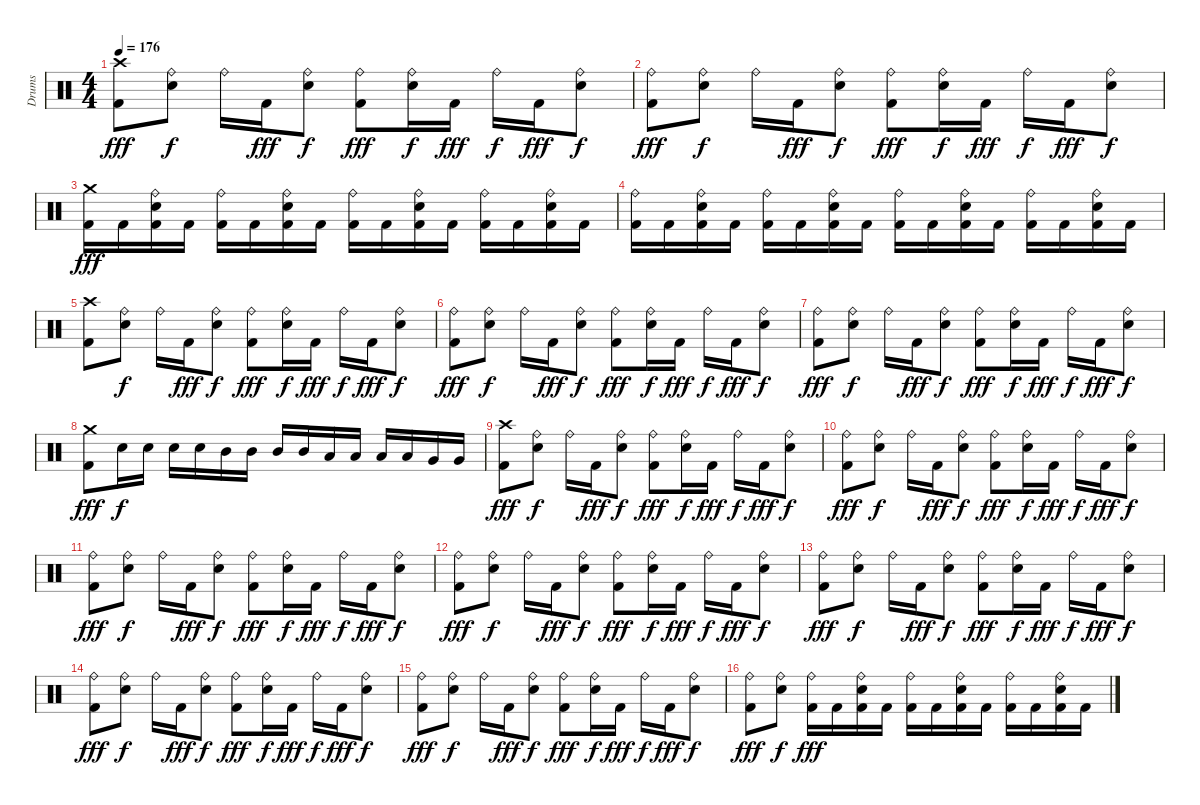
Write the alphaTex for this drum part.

\track ("Drums" "Drums") {instrument percussion}
\staff {score}
\articulation defaults
\ts (4 4)
\tempo 176
\clef neutral
\ks c
("Crash high (hit)" "Kick (hit) 2").8{dy fff} ("Ride (bell)" "Snare (hit) 2").8{dy f} "Ride (bell)".16 "Kick (hit) 2".16{dy fff} ("Ride (bell)" "Snare (hit) 2").8{dy f} ("Ride (bell)" "Kick (hit) 2").8{dy fff} ("Ride (bell)" "Snare (hit) 2").16{dy f} "Kick (hit) 2".16{dy fff} "Ride (bell)".16{dy f} "Kick (hit) 2".16{dy fff} ("Ride (bell)" "Snare (hit) 2").8{dy f} |
("Ride (bell)" "Kick (hit) 2").8{dy fff} ("Ride (bell)" "Snare (hit) 2").8{dy f} "Ride (bell)".16 "Kick (hit) 2".16{dy fff} ("Ride (bell)" "Snare (hit) 2").8{dy f} ("Ride (bell)" "Kick (hit) 2").8{dy fff} ("Ride (bell)" "Snare (hit) 2").16{dy f} "Kick (hit) 2".16{dy fff} "Ride (bell)".16{dy f} "Kick (hit) 2".16{dy fff} ("Ride (bell)" "Snare (hit) 2").8{dy f} |
("Crash medium (hit)" "Kick (hit) 2").16{dy fff} "Kick (hit) 2".16 ("Ride (bell)" "Snare (hit) 2" "Kick (hit) 2").16 "Kick (hit) 2".16 ("Ride (bell)" "Kick (hit) 2").16 "Kick (hit) 2".16 ("Ride (bell)" "Snare (hit) 2" "Kick (hit) 2").16 "Kick (hit) 2".16 ("Ride (bell)" "Kick (hit) 2").16 "Kick (hit) 2".16 ("Ride (bell)" "Snare (hit) 2" "Kick (hit) 2").16 "Kick (hit) 2".16 ("Ride (bell)" "Kick (hit) 2").16 "Kick (hit) 2".16 ("Ride (bell)" "Snare (hit) 2" "Kick (hit) 2").16 "Kick (hit) 2".16 |
("Ride (bell)" "Kick (hit) 2").16 "Kick (hit) 2".16 ("Ride (bell)" "Snare (hit) 2" "Kick (hit) 2").16 "Kick (hit) 2".16 ("Ride (bell)" "Kick (hit) 2").16 "Kick (hit) 2".16 ("Ride (bell)" "Snare (hit) 2" "Kick (hit) 2").16 "Kick (hit) 2".16 ("Ride (bell)" "Kick (hit) 2").16 "Kick (hit) 2".16 ("Ride (bell)" "Snare (hit) 2" "Kick (hit) 2").16 "Kick (hit) 2".16 ("Ride (bell)" "Kick (hit) 2").16 "Kick (hit) 2".16 ("Ride (bell)" "Snare (hit) 2" "Kick (hit) 2").16 "Kick (hit) 2".16 |
("Crash high (hit)" "Kick (hit) 2").8 ("Ride (bell)" "Snare (hit) 2").8{dy f} "Ride (bell)".16 "Kick (hit) 2".16{dy fff} ("Ride (bell)" "Snare (hit) 2").8{dy f} ("Ride (bell)" "Kick (hit) 2").8{dy fff} ("Ride (bell)" "Snare (hit) 2").16{dy f} "Kick (hit) 2".16{dy fff} "Ride (bell)".16{dy f} "Kick (hit) 2".16{dy fff} ("Ride (bell)" "Snare (hit) 2").8{dy f} |
("Ride (bell)" "Kick (hit) 2").8{dy fff} ("Ride (bell)" "Snare (hit) 2").8{dy f} "Ride (bell)".16 "Kick (hit) 2".16{dy fff} ("Ride (bell)" "Snare (hit) 2").8{dy f} ("Ride (bell)" "Kick (hit) 2").8{dy fff} ("Ride (bell)" "Snare (hit) 2").16{dy f} "Kick (hit) 2".16{dy fff} "Ride (bell)".16{dy f} "Kick (hit) 2".16{dy fff} ("Ride (bell)" "Snare (hit) 2").8{dy f} |
("Ride (bell)" "Kick (hit) 2").8{dy fff} ("Ride (bell)" "Snare (hit) 2").8{dy f} "Ride (bell)".16 "Kick (hit) 2".16{dy fff} ("Ride (bell)" "Snare (hit) 2").8{dy f} ("Ride (bell)" "Kick (hit) 2").8{dy fff} ("Ride (bell)" "Snare (hit) 2").16{dy f} "Kick (hit) 2".16{dy fff} "Ride (bell)".16{dy f} "Kick (hit) 2".16{dy fff} ("Ride (bell)" "Snare (hit) 2").8{dy f} |
("Crash medium (hit)" "Kick (hit) 2").8{dy fff} "Snare (hit) 2".16{dy f} "Snare (hit) 2".16 "Snare (hit) 2".16 "Snare (hit) 2".16 "Mid Tom (hit)".16 "Mid Tom (hit)".16 "Mid Tom (hit)".16 "Mid Tom (hit)".16 "Low Tom (hit)".16 "Low Tom (hit)".16 "Low Tom (hit)".16 "Low Tom (hit)".16 "Very Low Tom (hit)".16 "Very Low Tom (hit)".16 |
("Crash high (hit)" "Kick (hit) 2").8{dy fff} ("Ride (bell)" "Snare (hit) 2").8{dy f} "Ride (bell)".16 "Kick (hit) 2".16{dy fff} ("Ride (bell)" "Snare (hit) 2").8{dy f} ("Ride (bell)" "Kick (hit) 2").8{dy fff} ("Ride (bell)" "Snare (hit) 2").16{dy f} "Kick (hit) 2".16{dy fff} "Ride (bell)".16{dy f} "Kick (hit) 2".16{dy fff} ("Ride (bell)" "Snare (hit) 2").8{dy f} |
("Ride (bell)" "Kick (hit) 2").8{dy fff} ("Ride (bell)" "Snare (hit) 2").8{dy f} "Ride (bell)".16 "Kick (hit) 2".16{dy fff} ("Ride (bell)" "Snare (hit) 2").8{dy f} ("Ride (bell)" "Kick (hit) 2").8{dy fff} ("Ride (bell)" "Snare (hit) 2").16{dy f} "Kick (hit) 2".16{dy fff} "Ride (bell)".16{dy f} "Kick (hit) 2".16{dy fff} ("Ride (bell)" "Snare (hit) 2").8{dy f} |
("Ride (bell)" "Kick (hit) 2").8{dy fff} ("Ride (bell)" "Snare (hit) 2").8{dy f} "Ride (bell)".16 "Kick (hit) 2".16{dy fff} ("Ride (bell)" "Snare (hit) 2").8{dy f} ("Ride (bell)" "Kick (hit) 2").8{dy fff} ("Ride (bell)" "Snare (hit) 2").16{dy f} "Kick (hit) 2".16{dy fff} "Ride (bell)".16{dy f} "Kick (hit) 2".16{dy fff} ("Ride (bell)" "Snare (hit) 2").8{dy f} |
("Ride (bell)" "Kick (hit) 2").8{dy fff} ("Ride (bell)" "Snare (hit) 2").8{dy f} "Ride (bell)".16 "Kick (hit) 2".16{dy fff} ("Ride (bell)" "Snare (hit) 2").8{dy f} ("Ride (bell)" "Kick (hit) 2").8{dy fff} ("Ride (bell)" "Snare (hit) 2").16{dy f} "Kick (hit) 2".16{dy fff} "Ride (bell)".16{dy f} "Kick (hit) 2".16{dy fff} ("Ride (bell)" "Snare (hit) 2").8{dy f} |
("Ride (bell)" "Kick (hit) 2").8{dy fff} ("Ride (bell)" "Snare (hit) 2").8{dy f} "Ride (bell)".16 "Kick (hit) 2".16{dy fff} ("Ride (bell)" "Snare (hit) 2").8{dy f} ("Ride (bell)" "Kick (hit) 2").8{dy fff} ("Ride (bell)" "Snare (hit) 2").16{dy f} "Kick (hit) 2".16{dy fff} "Ride (bell)".16{dy f} "Kick (hit) 2".16{dy fff} ("Ride (bell)" "Snare (hit) 2").8{dy f} |
("Ride (bell)" "Kick (hit) 2").8{dy fff} ("Ride (bell)" "Snare (hit) 2").8{dy f} "Ride (bell)".16 "Kick (hit) 2".16{dy fff} ("Ride (bell)" "Snare (hit) 2").8{dy f} ("Ride (bell)" "Kick (hit) 2").8{dy fff} ("Ride (bell)" "Snare (hit) 2").16{dy f} "Kick (hit) 2".16{dy fff} "Ride (bell)".16{dy f} "Kick (hit) 2".16{dy fff} ("Ride (bell)" "Snare (hit) 2").8{dy f} |
("Ride (bell)" "Kick (hit) 2").8{dy fff} ("Ride (bell)" "Snare (hit) 2").8{dy f} "Ride (bell)".16 "Kick (hit) 2".16{dy fff} ("Ride (bell)" "Snare (hit) 2").8{dy f} ("Ride (bell)" "Kick (hit) 2").8{dy fff} ("Ride (bell)" "Snare (hit) 2").16{dy f} "Kick (hit) 2".16{dy fff} "Ride (bell)".16{dy f} "Kick (hit) 2".16{dy fff} ("Ride (bell)" "Snare (hit) 2").8{dy f} |
("Ride (bell)" "Kick (hit) 2").8{dy fff} ("Ride (bell)" "Snare (hit) 2").8{dy f} ("Ride (bell)" "Kick (hit) 2").16{dy fff} "Kick (hit) 2".16 ("Ride (bell)" "Snare (hit) 2" "Kick (hit) 2").16 "Kick (hit) 2".16 ("Ride (bell)" "Kick (hit) 2").16 "Kick (hit) 2".16 ("Ride (bell)" "Snare (hit) 2" "Kick (hit) 2").16 "Kick (hit) 2".16 ("Ride (bell)" "Kick (hit) 2").16 "Kick (hit) 2".16 ("Ride (bell)" "Snare (hit) 2" "Kick (hit) 2").16 "Kick (hit) 2".16
